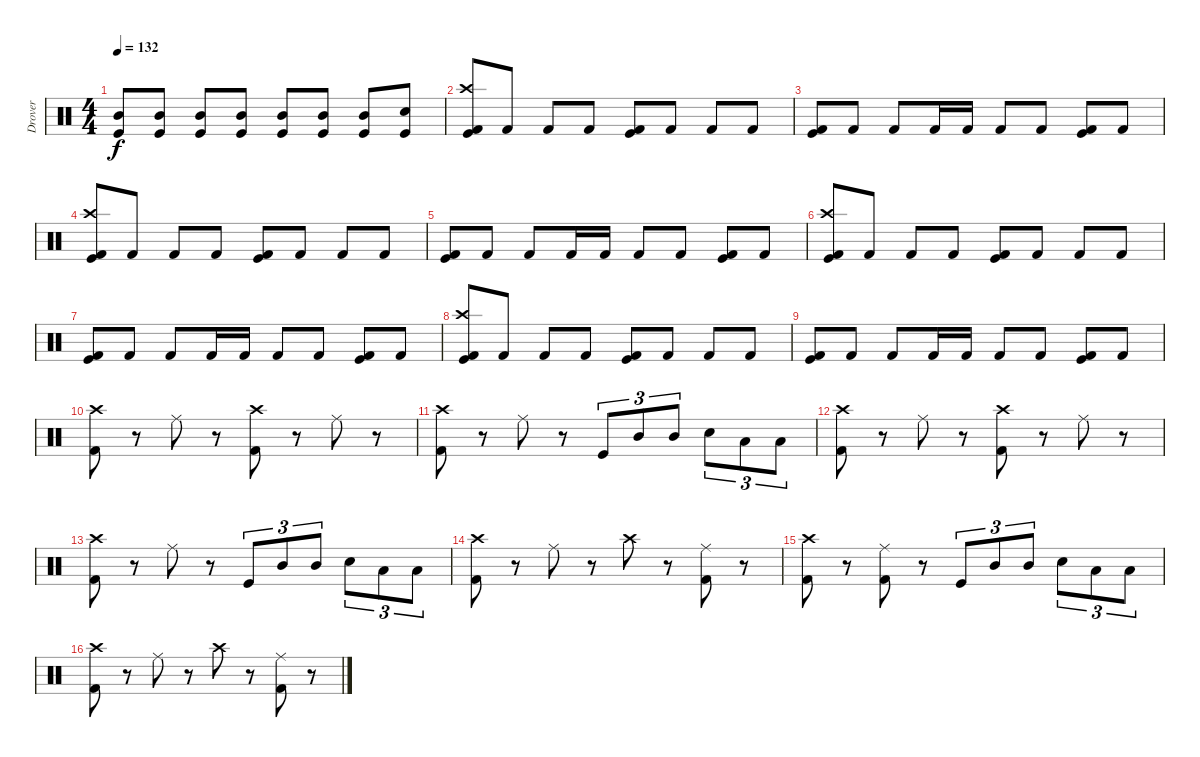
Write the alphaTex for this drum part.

\track ("Drover" "Drover") {instrument percussion}
\staff {score}
\articulation defaults
\ts (4 4)
\tempo 132
\clef neutral
\ks c
("Mid Tom (hit)" "Kick (hit)").8{dy f} ("Mid Tom (hit)" "Kick (hit)").8 ("Mid Tom (hit)" "Kick (hit)").8 ("Mid Tom (hit)" "Kick (hit)").8 ("Mid Tom (hit)" "Kick (hit)").8 ("Mid Tom (hit)" "Kick (hit)").8 ("Mid Tom (hit)" "Kick (hit)").8 ("Kick (hit)" "Electric Snare (hit)").8 |
("Crash high (hit)" "Kick (hit) 2" "Kick (hit)").8 "Kick (hit) 2".8 "Kick (hit) 2".8 "Kick (hit) 2".8 ("Kick (hit) 2" "Kick (hit)").8 "Kick (hit) 2".8 "Kick (hit) 2".8 "Kick (hit) 2".8 |
("Kick (hit) 2" "Kick (hit)").8 "Kick (hit) 2".8 "Kick (hit) 2".8 "Kick (hit) 2".16 "Kick (hit) 2".16 "Kick (hit) 2".8 "Kick (hit) 2".8 ("Kick (hit)" "Kick (hit) 2").8 "Kick (hit) 2".8 |
("Crash high (hit)" "Kick (hit) 2" "Kick (hit)").8 "Kick (hit) 2".8 "Kick (hit) 2".8 "Kick (hit) 2".8 ("Kick (hit) 2" "Kick (hit)").8 "Kick (hit) 2".8 "Kick (hit) 2".8 "Kick (hit) 2".8 |
("Kick (hit) 2" "Kick (hit)").8 "Kick (hit) 2".8 "Kick (hit) 2".8 "Kick (hit) 2".16 "Kick (hit) 2".16 "Kick (hit) 2".8 "Kick (hit) 2".8 ("Kick (hit)" "Kick (hit) 2").8 "Kick (hit) 2".8 |
("Crash high (hit)" "Kick (hit) 2" "Kick (hit)").8 "Kick (hit) 2".8 "Kick (hit) 2".8 "Kick (hit) 2".8 ("Kick (hit) 2" "Kick (hit)").8 "Kick (hit) 2".8 "Kick (hit) 2".8 "Kick (hit) 2".8 |
("Kick (hit) 2" "Kick (hit)").8 "Kick (hit) 2".8 "Kick (hit) 2".8 "Kick (hit) 2".16 "Kick (hit) 2".16 "Kick (hit) 2".8 "Kick (hit) 2".8 ("Kick (hit)" "Kick (hit) 2").8 "Kick (hit) 2".8 |
("Crash high (hit)" "Kick (hit) 2" "Kick (hit)").8 "Kick (hit) 2".8 "Kick (hit) 2".8 "Kick (hit) 2".8 ("Kick (hit) 2" "Kick (hit)").8 "Kick (hit) 2".8 "Kick (hit) 2".8 "Kick (hit) 2".8 |
("Kick (hit) 2" "Kick (hit)").8 "Kick (hit) 2".8 "Kick (hit) 2".8 "Kick (hit) 2".16 "Kick (hit) 2".16 "Kick (hit) 2".8 "Kick (hit) 2".8 ("Kick (hit)" "Kick (hit) 2").8 "Kick (hit) 2".8 |
("Crash high (hit)" "Kick (hit) 2").8 r.8 "Ride (middle)".8 r.8 ("Crash high (hit)" "Kick (hit) 2").8 r.8 "Ride (middle)".8 r.8 |
("Crash high (hit)" "Kick (hit) 2").8 r.8 "Ride (middle)".8 r.8 "Kick (hit)".8{tu (3 2)} "Mid Tom (hit)".8{tu (3 2)} "Mid Tom (hit)".8{tu (3 2)} "Snare (hit) 2".8{tu (3 2)} "Low Floor Tom (hit)".8{tu (3 2)} "Low Floor Tom (hit)".8{tu (3 2)} |
("Crash high (hit)" "Kick (hit) 2").8 r.8 "Ride (middle)".8 r.8 ("Crash high (hit)" "Kick (hit) 2").8 r.8 "Ride (middle)".8 r.8 |
("Crash high (hit)" "Kick (hit) 2").8 r.8 "Ride (middle)".8 r.8 "Kick (hit)".8{tu (3 2)} "Mid Tom (hit)".8{tu (3 2)} "Mid Tom (hit)".8{tu (3 2)} "Snare (hit) 2".8{tu (3 2)} "Low Floor Tom (hit)".8{tu (3 2)} "Low Floor Tom (hit)".8{tu (3 2)} |
("Crash high (hit)" "Kick (hit) 2").8 r.8 "Ride (middle)".8 r.8 "Crash high (hit)".8 r.8 ("Ride (middle)" "Kick (hit) 2").8 r.8 |
("Crash high (hit)" "Kick (hit) 2").8 r.8 ("Ride (middle)" "Kick (hit) 2").8 r.8 "Kick (hit)".8{tu (3 2)} "Mid Tom (hit)".8{tu (3 2)} "Mid Tom (hit)".8{tu (3 2)} "Snare (hit) 2".8{tu (3 2)} "Low Floor Tom (hit)".8{tu (3 2)} "Low Floor Tom (hit)".8{tu (3 2)} |
("Crash high (hit)" "Kick (hit) 2").8 r.8 "Ride (middle)".8 r.8 "Crash high (hit)".8 r.8 ("Ride (middle)" "Kick (hit) 2").8 r.8
